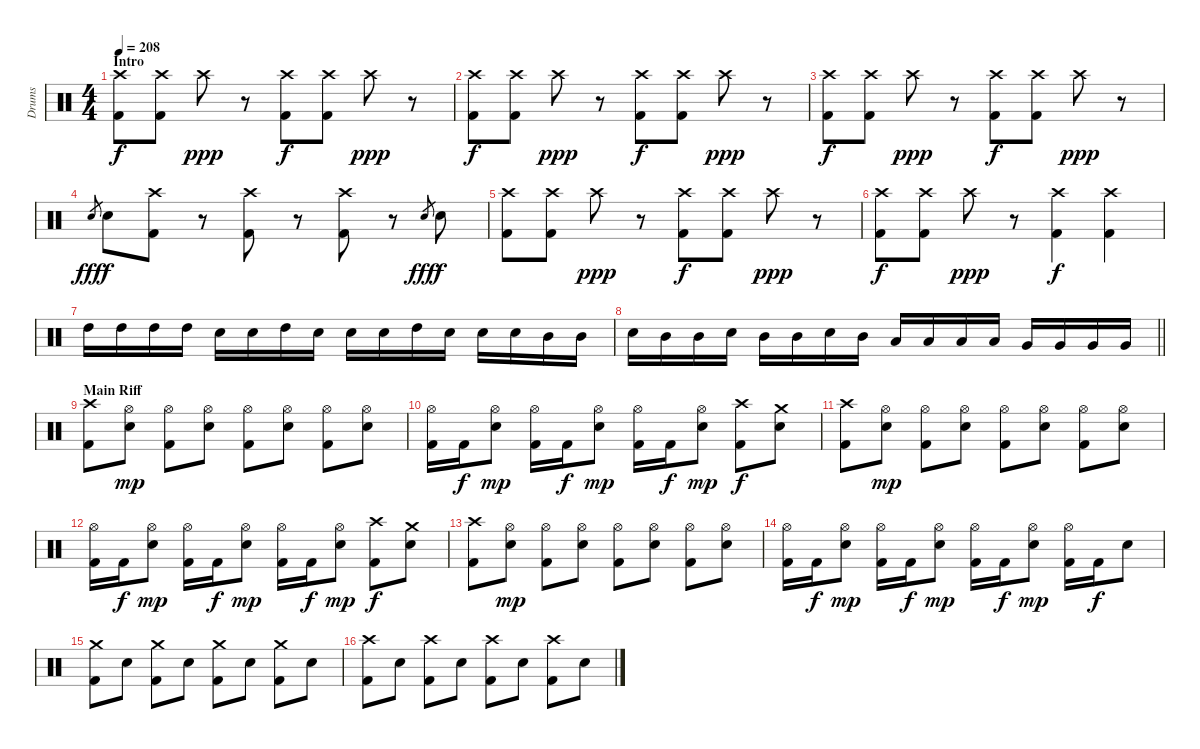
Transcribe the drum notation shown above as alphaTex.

\track ("Drums" "Drums") {instrument percussion}
\staff {score}
\articulation defaults
\ts (4 4)
\section ("" "Intro")
\tempo 208
\clef neutral
\ks c
("Crash high (hit)" "Kick (hit) 2").8{dy f} ("Crash high (hit)" "Kick (hit) 2").8 "Crash high (hit)".8{dy ppp} r.8 ("Crash high (hit)" "Kick (hit) 2").8{dy f} ("Crash high (hit)" "Kick (hit) 2").8 "Crash high (hit)".8{dy ppp} r.8 |
("Crash high (hit)" "Kick (hit) 2").8{dy f} ("Crash high (hit)" "Kick (hit) 2").8 "Crash high (hit)".8{dy ppp} r.8 ("Crash high (hit)" "Kick (hit) 2").8{dy f} ("Crash high (hit)" "Kick (hit) 2").8 "Crash high (hit)".8{dy ppp} r.8 |
("Crash high (hit)" "Kick (hit) 2").8{dy f} ("Crash high (hit)" "Kick (hit) 2").8 "Crash high (hit)".8{dy ppp} r.8 ("Crash high (hit)" "Kick (hit) 2").8{dy f} ("Crash high (hit)" "Kick (hit) 2").8 "Crash high (hit)".8{dy ppp} r.8 |
"Electric Snare (hit)".8{gr dy fff} "Electric Snare (hit)".8{dy f} ("Crash high (hit)" "Kick (hit) 2").8 r.8 ("Crash high (hit)" "Kick (hit) 2").8 r.8 ("Crash high (hit)" "Kick (hit) 2").8 r.8 "Electric Snare (hit)".8{gr dy fff} "Electric Snare (hit)".8{dy f} |
("Crash high (hit)" "Kick (hit) 2").8 ("Crash high (hit)" "Kick (hit) 2").8 "Crash high (hit)".8{dy ppp} r.8 ("Crash high (hit)" "Kick (hit) 2").8{dy f} ("Crash high (hit)" "Kick (hit) 2").8 "Crash high (hit)".8{dy ppp} r.8 |
("Crash high (hit)" "Kick (hit) 2").8{dy f} ("Crash high (hit)" "Kick (hit) 2").8 "Crash high (hit)".8{dy ppp} r.8 ("Crash high (hit)" "Kick (hit) 2").4{dy f} ("Crash high (hit)" "Kick (hit) 2").4 |
"High Tom (hit)".16 "High Tom (hit)".16 "High Tom (hit)".16 "High Tom (hit)".16 "Electric Snare (hit)".16 "Electric Snare (hit)".16 "High Tom (hit)".16 "Electric Snare (hit)".16 "Electric Snare (hit)".16 "Electric Snare (hit)".16 "High Tom (hit)".16 "Electric Snare (hit)".16 "Electric Snare (hit)".16 "Electric Snare (hit)".16 "Mid Tom (hit)".16 "Mid Tom (hit)".16 |
\barLineRight lightlight "Electric Snare (hit)".16 "Mid Tom (hit)".16 "Mid Tom (hit)".16 "Electric Snare (hit)".16 "Mid Tom (hit)".16 "Mid Tom (hit)".16 "Electric Snare (hit)".16 "Mid Tom (hit)".16 "Low Tom (hit)".16 "Low Tom (hit)".16 "Low Tom (hit)".16 "Low Tom (hit)".16 "Very Low Tom (hit)".16 "Very Low Tom (hit)".16 "Very Low Tom (hit)".16 "Very Low Tom (hit)".16
|
\section ("" "Main Riff")
("Crash high (hit)" "Kick (hit) 2").8 ("Hi-Hat (open)" "Electric Snare (hit)").8{dy mp} ("Hi-Hat (open)" "Kick (hit) 2").8 ("Hi-Hat (open)" "Electric Snare (hit)").8 ("Hi-Hat (open)" "Kick (hit) 2").8 ("Hi-Hat (open)" "Electric Snare (hit)").8 ("Hi-Hat (open)" "Kick (hit) 2").8 ("Hi-Hat (open)" "Electric Snare (hit)").8 |
("Hi-Hat (open)" "Kick (hit) 2").16 "Kick (hit) 2".16{dy f} ("Hi-Hat (open)" "Electric Snare (hit)").8{dy mp} ("Hi-Hat (open)" "Kick (hit) 2").16 "Kick (hit) 2".16{dy f} ("Hi-Hat (open)" "Electric Snare (hit)").8{dy mp} ("Hi-Hat (open)" "Kick (hit) 2").16 "Kick (hit) 2".16{dy f} ("Hi-Hat (open)" "Electric Snare (hit)").8{dy mp} ("Crash high (hit)" "Kick (hit) 2").8{dy f} ("Crash medium (hit)" "Electric Snare (hit)").8 |
("Crash high (hit)" "Kick (hit) 2").8 ("Hi-Hat (open)" "Electric Snare (hit)").8{dy mp} ("Hi-Hat (open)" "Kick (hit) 2").8 ("Hi-Hat (open)" "Electric Snare (hit)").8 ("Hi-Hat (open)" "Kick (hit) 2").8 ("Hi-Hat (open)" "Electric Snare (hit)").8 ("Hi-Hat (open)" "Kick (hit) 2").8 ("Hi-Hat (open)" "Electric Snare (hit)").8 |
("Hi-Hat (open)" "Kick (hit) 2").16 "Kick (hit) 2".16{dy f} ("Hi-Hat (open)" "Electric Snare (hit)").8{dy mp} ("Hi-Hat (open)" "Kick (hit) 2").16 "Kick (hit) 2".16{dy f} ("Hi-Hat (open)" "Electric Snare (hit)").8{dy mp} ("Hi-Hat (open)" "Kick (hit) 2").16 "Kick (hit) 2".16{dy f} ("Hi-Hat (open)" "Electric Snare (hit)").8{dy mp} ("Crash high (hit)" "Kick (hit) 2").8{dy f} ("Crash medium (hit)" "Electric Snare (hit)").8 |
("Crash high (hit)" "Kick (hit) 2").8 ("Hi-Hat (open)" "Electric Snare (hit)").8{dy mp} ("Hi-Hat (open)" "Kick (hit) 2").8 ("Hi-Hat (open)" "Electric Snare (hit)").8 ("Hi-Hat (open)" "Kick (hit) 2").8 ("Hi-Hat (open)" "Electric Snare (hit)").8 ("Hi-Hat (open)" "Kick (hit) 2").8 ("Hi-Hat (open)" "Electric Snare (hit)").8 |
("Hi-Hat (open)" "Kick (hit) 2").16 "Kick (hit) 2".16{dy f} ("Hi-Hat (open)" "Electric Snare (hit)").8{dy mp} ("Hi-Hat (open)" "Kick (hit) 2").16 "Kick (hit) 2".16{dy f} ("Hi-Hat (open)" "Electric Snare (hit)").8{dy mp} ("Hi-Hat (open)" "Kick (hit) 2").16 "Kick (hit) 2".16{dy f} ("Hi-Hat (open)" "Electric Snare (hit)").8{dy mp} ("Hi-Hat (open)" "Kick (hit) 2").16 "Kick (hit) 2".16{dy f} "Electric Snare (hit)".8 |
("Crash medium (hit)" "Kick (hit) 2").8 "Electric Snare (hit)".8 ("Crash medium (hit)" "Kick (hit) 2").8 "Electric Snare (hit)".8 ("Crash medium (hit)" "Kick (hit) 2").8 "Electric Snare (hit)".8 ("Crash medium (hit)" "Kick (hit) 2").8 "Electric Snare (hit)".8 |
("Crash high (hit)" "Kick (hit) 2").8 "Electric Snare (hit)".8 ("Crash high (hit)" "Kick (hit) 2").8 "Electric Snare (hit)".8 ("Crash high (hit)" "Kick (hit) 2").8 "Electric Snare (hit)".8 ("Crash high (hit)" "Kick (hit) 2").8 "Electric Snare (hit)".8
